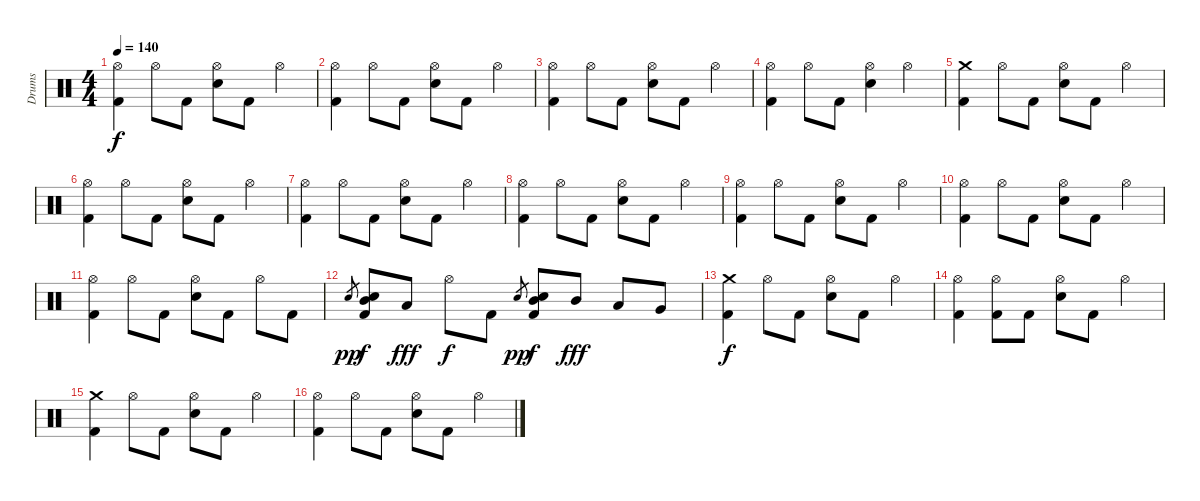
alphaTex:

\track ("Drums" "Drums") {instrument percussion}
\staff {score}
\articulation defaults
\ts (4 4)
\tempo 140
\clef neutral
\ks c
("Kick (hit) 2" "Hi-Hat (open)").4{dy f} "Hi-Hat (open)".8 "Kick (hit) 2".8 ("Hi-Hat (open)" "Snare (hit) 2").8 "Kick (hit) 2".8 "Hi-Hat (open)".4 |
("Kick (hit) 2" "Hi-Hat (open)").4 "Hi-Hat (open)".8 "Kick (hit) 2".8 ("Hi-Hat (open)" "Snare (hit) 2").8 "Kick (hit) 2".8 "Hi-Hat (open)".4 |
("Kick (hit) 2" "Hi-Hat (open)").4 "Hi-Hat (open)".8 "Kick (hit) 2".8 ("Hi-Hat (open)" "Snare (hit) 2").8 "Kick (hit) 2".8 "Hi-Hat (open)".4 |
("Kick (hit) 2" "Hi-Hat (open)").4 "Hi-Hat (open)".8 "Kick (hit) 2".8 ("Hi-Hat (open)" "Snare (hit) 2").4 "Hi-Hat (open)".4 |
("Kick (hit) 2" "Crash medium (hit)").4 "Hi-Hat (open)".8 "Kick (hit) 2".8 ("Hi-Hat (open)" "Snare (hit) 2").8 "Kick (hit) 2".8 "Hi-Hat (open)".4 |
("Kick (hit) 2" "Hi-Hat (open)").4 "Hi-Hat (open)".8 "Kick (hit) 2".8 ("Hi-Hat (open)" "Snare (hit) 2").8 "Kick (hit) 2".8 "Hi-Hat (open)".4 |
("Kick (hit) 2" "Hi-Hat (open)").4 "Hi-Hat (open)".8 "Kick (hit) 2".8 ("Hi-Hat (open)" "Snare (hit) 2").8 "Kick (hit) 2".8 "Hi-Hat (open)".4 |
("Kick (hit) 2" "Hi-Hat (open)").4 "Hi-Hat (open)".8 "Kick (hit) 2".8 ("Hi-Hat (open)" "Snare (hit) 2").8 "Kick (hit) 2".8 "Hi-Hat (open)".4 |
("Kick (hit) 2" "Hi-Hat (open)").4 "Hi-Hat (open)".8 "Kick (hit) 2".8 ("Hi-Hat (open)" "Snare (hit) 2").8 "Kick (hit) 2".8 "Hi-Hat (open)".4 |
("Kick (hit) 2" "Hi-Hat (open)").4 "Hi-Hat (open)".8 "Kick (hit) 2".8 ("Hi-Hat (open)" "Snare (hit) 2").8 "Kick (hit) 2".8 "Hi-Hat (open)".4 |
("Kick (hit) 2" "Hi-Hat (open)").4 "Hi-Hat (open)".8 "Kick (hit) 2".8 ("Hi-Hat (open)" "Snare (hit) 2").8 "Kick (hit) 2".8 "Hi-Hat (open)".8 "Kick (hit) 2".8 |
"Snare (hit)".8{gr dy pp} ("Kick (hit) 2" "Mid Tom (hit)" "Snare (hit) 2").8{dy f} "Low Tom (hit)".8{dy fff} "Hi-Hat (open)".8{dy f} "Kick (hit) 2".8 "Snare (hit)".8{gr dy pp} ("Kick (hit) 2" "Mid Tom (hit)" "Snare (hit) 2").8{dy f} "Mid Tom (hit)".8{dy fff} "Low Tom (hit)".8 "Very Low Tom (hit)".8 |
("Kick (hit) 2" "Crash medium (hit)").4{dy f} "Hi-Hat (open)".8 "Kick (hit) 2".8 ("Hi-Hat (open)" "Snare (hit) 2").8 "Kick (hit) 2".8 "Hi-Hat (open)".4 |
("Kick (hit) 2" "Hi-Hat (open)").4 ("Kick (hit) 2" "Hi-Hat (open)").8 "Kick (hit) 2".8 ("Hi-Hat (open)" "Snare (hit) 2").8 "Kick (hit) 2".8 "Hi-Hat (open)".4 |
("Kick (hit) 2" "Crash medium (hit)").4 "Hi-Hat (open)".8 "Kick (hit) 2".8 ("Hi-Hat (open)" "Snare (hit) 2").8 "Kick (hit) 2".8 "Hi-Hat (open)".4 |
("Kick (hit) 2" "Hi-Hat (open)").4 "Hi-Hat (open)".8 "Kick (hit) 2".8 ("Hi-Hat (open)" "Snare (hit) 2").8 "Kick (hit) 2".8 "Hi-Hat (open)".4
